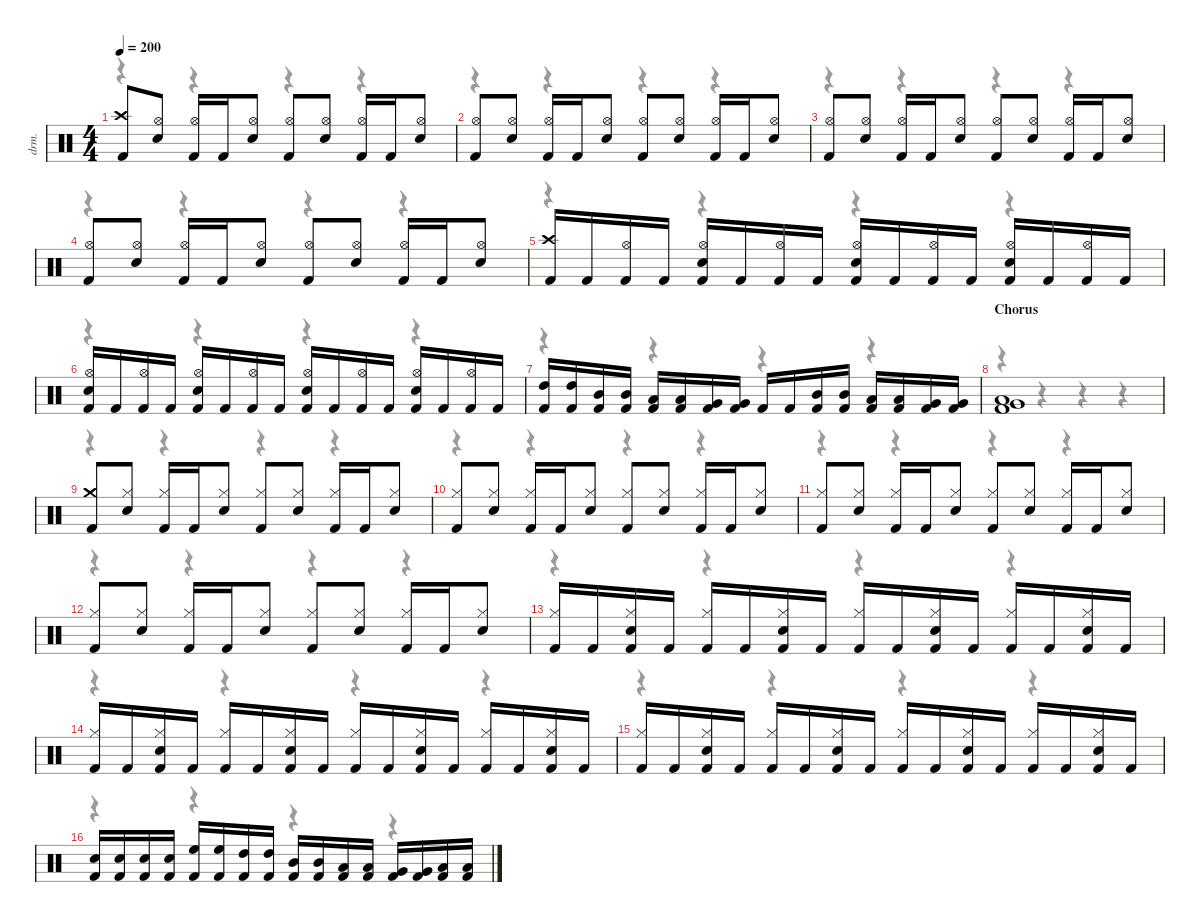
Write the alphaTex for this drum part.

\defaultSystemsLayout 4
\hideDynamics
\bracketExtendMode nobrackets
\otherSystemsTrackNameOrientation horizontal
\track ("David Mackintosh (Drums)" "drm.") {instrument percussion}
\staff {score}
\articulation defaults
\voice
\ts (4 4)
\tempo 200
\clef neutral
\ks c
("Kick (hit) 2" "Crash high (hit)").8{dy f} ("Snare (hit) 2" "Hi-Hat (open)").8 ("Kick (hit) 2" "Hi-Hat (open)").16 "Kick (hit) 2".16 ("Snare (hit) 2" "Hi-Hat (open)").8 ("Kick (hit) 2" "Hi-Hat (open)").8 ("Snare (hit) 2" "Hi-Hat (open)").8 ("Kick (hit) 2" "Hi-Hat (open)").16 "Kick (hit) 2".16 ("Snare (hit) 2" "Hi-Hat (open)").8 |
("Kick (hit) 2" "Hi-Hat (open)").8 ("Snare (hit) 2" "Hi-Hat (open)").8 ("Kick (hit) 2" "Hi-Hat (open)").16 "Kick (hit) 2".16 ("Snare (hit) 2" "Hi-Hat (open)").8 ("Kick (hit) 2" "Hi-Hat (open)").8 ("Snare (hit) 2" "Hi-Hat (open)").8 ("Kick (hit) 2" "Hi-Hat (open)").16 "Kick (hit) 2".16 ("Snare (hit) 2" "Hi-Hat (open)").8 |
("Kick (hit) 2" "Hi-Hat (open)").8 ("Snare (hit) 2" "Hi-Hat (open)").8 ("Kick (hit) 2" "Hi-Hat (open)").16 "Kick (hit) 2".16 ("Snare (hit) 2" "Hi-Hat (open)").8 ("Kick (hit) 2" "Hi-Hat (open)").8 ("Snare (hit) 2" "Hi-Hat (open)").8 ("Kick (hit) 2" "Hi-Hat (open)").16 "Kick (hit) 2".16 ("Snare (hit) 2" "Hi-Hat (open)").8 |
("Kick (hit) 2" "Hi-Hat (open)").8 ("Snare (hit) 2" "Hi-Hat (open)").8 ("Kick (hit) 2" "Hi-Hat (open)").16 "Kick (hit) 2".16 ("Snare (hit) 2" "Hi-Hat (open)").8 ("Kick (hit) 2" "Hi-Hat (open)").8 ("Snare (hit) 2" "Hi-Hat (open)").8 ("Kick (hit) 2" "Hi-Hat (open)").16 "Kick (hit) 2".16 ("Snare (hit) 2" "Hi-Hat (open)").8 |
("Kick (hit) 2" "Crash high (hit)").16 "Kick (hit) 2".16 ("Kick (hit) 2" "Hi-Hat (open)").16 "Kick (hit) 2".16 ("Kick (hit) 2" "Snare (hit) 2" "Hi-Hat (open)").16 "Kick (hit) 2".16 ("Kick (hit) 2" "Hi-Hat (open)").16 "Kick (hit) 2".16 ("Kick (hit) 2" "Snare (hit) 2" "Hi-Hat (open)").16 "Kick (hit) 2".16 ("Kick (hit) 2" "Hi-Hat (open)").16 "Kick (hit) 2".16 ("Kick (hit) 2" "Snare (hit) 2" "Hi-Hat (open)").16 "Kick (hit) 2".16 ("Kick (hit) 2" "Hi-Hat (open)").16 "Kick (hit) 2".16 |
("Kick (hit) 2" "Snare (hit) 2" "Hi-Hat (open)").16 "Kick (hit) 2".16 ("Kick (hit) 2" "Hi-Hat (open)").16 "Kick (hit) 2".16 ("Kick (hit) 2" "Snare (hit) 2" "Hi-Hat (open)").16 "Kick (hit) 2".16 ("Kick (hit) 2" "Hi-Hat (open)").16 "Kick (hit) 2".16 ("Kick (hit) 2" "Snare (hit) 2" "Hi-Hat (open)").16 "Kick (hit) 2".16 ("Kick (hit) 2" "Hi-Hat (open)").16 "Kick (hit) 2".16 ("Kick (hit) 2" "Snare (hit) 2" "Hi-Hat (open)").16 "Kick (hit) 2".16 ("Kick (hit) 2" "Hi-Hat (open)").16 "Kick (hit) 2".16 |
("Kick (hit) 2" "High Tom (hit)").16 ("Kick (hit) 2" "High Tom (hit)").16 ("Kick (hit) 2" "Mid Tom (hit)").16 ("Kick (hit) 2" "Mid Tom (hit)").16 ("Kick (hit) 2" "Low Tom (hit)").16 ("Kick (hit) 2" "Low Tom (hit)").16 ("Kick (hit) 2" "Very Low Tom (hit)").16 ("Kick (hit) 2" "Very Low Tom (hit)").16 "Kick (hit) 2".16 "Kick (hit) 2".16 ("Kick (hit) 2" "Mid Tom (hit)").16 ("Kick (hit) 2" "Mid Tom (hit)").16 ("Kick (hit) 2" "Low Tom (hit)").16 ("Kick (hit) 2" "Low Tom (hit)").16 ("Kick (hit) 2" "Very Low Tom (hit)").16 ("Kick (hit) 2" "Very Low Tom (hit)").16 |
\section ("" "Chorus")
("Kick (hit) 2" "Very Low Tom (hit)" "Low Floor Tom (hit)").1 |
("Kick (hit) 2" "Crash medium (hit)").8 ("Snare (hit) 2" "Hi-Hat (closed)").8 ("Kick (hit) 2" "Hi-Hat (closed)").16 "Kick (hit) 2".16 ("Snare (hit) 2" "Hi-Hat (closed)").8 ("Kick (hit) 2" "Hi-Hat (closed)").8 ("Snare (hit) 2" "Hi-Hat (closed)").8 ("Kick (hit) 2" "Hi-Hat (closed)").16 "Kick (hit) 2".16 ("Snare (hit) 2" "Hi-Hat (closed)").8 |
("Kick (hit) 2" "Hi-Hat (closed)").8 ("Snare (hit) 2" "Hi-Hat (closed)").8 ("Kick (hit) 2" "Hi-Hat (closed)").16 "Kick (hit) 2".16 ("Snare (hit) 2" "Hi-Hat (closed)").8 ("Kick (hit) 2" "Hi-Hat (closed)").8 ("Snare (hit) 2" "Hi-Hat (closed)").8 ("Kick (hit) 2" "Hi-Hat (closed)").16 "Kick (hit) 2".16 ("Snare (hit) 2" "Hi-Hat (closed)").8 |
("Kick (hit) 2" "Hi-Hat (closed)").8 ("Snare (hit) 2" "Hi-Hat (closed)").8 ("Kick (hit) 2" "Hi-Hat (closed)").16 "Kick (hit) 2".16 ("Snare (hit) 2" "Hi-Hat (closed)").8 ("Kick (hit) 2" "Hi-Hat (closed)").8 ("Snare (hit) 2" "Hi-Hat (closed)").8 ("Kick (hit) 2" "Hi-Hat (closed)").16 "Kick (hit) 2".16 ("Snare (hit) 2" "Hi-Hat (closed)").8 |
("Kick (hit) 2" "Hi-Hat (closed)").8 ("Snare (hit) 2" "Hi-Hat (closed)").8 ("Kick (hit) 2" "Hi-Hat (closed)").16 "Kick (hit) 2".16 ("Snare (hit) 2" "Hi-Hat (closed)").8 ("Kick (hit) 2" "Hi-Hat (closed)").8 ("Snare (hit) 2" "Hi-Hat (closed)").8 ("Kick (hit) 2" "Hi-Hat (closed)").16 "Kick (hit) 2".16 ("Snare (hit) 2" "Hi-Hat (closed)").8 |
("Kick (hit) 2" "Hi-Hat (closed)").16 "Kick (hit) 2".16 ("Kick (hit) 2" "Snare (hit) 2" "Hi-Hat (closed)").16 "Kick (hit) 2".16 ("Kick (hit) 2" "Hi-Hat (closed)").16 "Kick (hit) 2".16 ("Kick (hit) 2" "Snare (hit) 2" "Hi-Hat (closed)").16 "Kick (hit) 2".16 ("Kick (hit) 2" "Hi-Hat (closed)").16 "Kick (hit) 2".16 ("Kick (hit) 2" "Snare (hit) 2" "Hi-Hat (closed)").16 "Kick (hit) 2".16 ("Kick (hit) 2" "Hi-Hat (closed)").16 "Kick (hit) 2".16 ("Kick (hit) 2" "Snare (hit) 2" "Hi-Hat (closed)").16 "Kick (hit) 2".16 |
("Kick (hit) 2" "Hi-Hat (closed)").16 "Kick (hit) 2".16 ("Kick (hit) 2" "Snare (hit) 2" "Hi-Hat (closed)").16 "Kick (hit) 2".16 ("Kick (hit) 2" "Hi-Hat (closed)").16 "Kick (hit) 2".16 ("Kick (hit) 2" "Snare (hit) 2" "Hi-Hat (closed)").16 "Kick (hit) 2".16 ("Kick (hit) 2" "Hi-Hat (closed)").16 "Kick (hit) 2".16 ("Kick (hit) 2" "Snare (hit) 2" "Hi-Hat (closed)").16 "Kick (hit) 2".16 ("Kick (hit) 2" "Hi-Hat (closed)").16 "Kick (hit) 2".16 ("Kick (hit) 2" "Snare (hit) 2" "Hi-Hat (closed)").16 "Kick (hit) 2".16 |
("Kick (hit) 2" "Hi-Hat (closed)").16 "Kick (hit) 2".16 ("Kick (hit) 2" "Snare (hit) 2" "Hi-Hat (closed)").16 "Kick (hit) 2".16 ("Kick (hit) 2" "Hi-Hat (closed)").16 "Kick (hit) 2".16 ("Kick (hit) 2" "Snare (hit) 2" "Hi-Hat (closed)").16 "Kick (hit) 2".16 ("Kick (hit) 2" "Hi-Hat (closed)").16 "Kick (hit) 2".16 ("Kick (hit) 2" "Snare (hit) 2" "Hi-Hat (closed)").16 "Kick (hit) 2".16 ("Kick (hit) 2" "Hi-Hat (closed)").16 "Kick (hit) 2".16 ("Kick (hit) 2" "Snare (hit) 2" "Hi-Hat (closed)").16 "Kick (hit) 2".16 |
("Kick (hit) 2" "Snare (hit) 2").16 ("Kick (hit) 2" "Snare (hit) 2").16 ("Kick (hit) 2" "Snare (hit) 2").16 ("Kick (hit) 2" "Snare (hit) 2").16 ("Kick (hit) 2" "High Floor Tom (hit)").16 ("Kick (hit) 2" "High Floor Tom (hit)").16 ("Kick (hit) 2" "High Tom (hit)").16 ("Kick (hit) 2" "High Tom (hit)").16 ("Kick (hit) 2" "Mid Tom (hit)").16 ("Kick (hit) 2" "Mid Tom (hit)").16 ("Kick (hit) 2" "Low Tom (hit)").16 ("Kick (hit) 2" "Low Tom (hit)").16 ("Kick (hit) 2" "Very Low Tom (hit)").16 ("Kick (hit) 2" "Very Low Tom (hit)").16 ("Kick (hit) 2" "Low Floor Tom (hit)").16 ("Kick (hit) 2" "Low Floor Tom (hit)").16
\voice
\clef neutral
\ottava regular
\simile none
\ks c
r.4{dy mf} r.4 r.4 r.4 |
r.4 r.4 r.4 r.4 |
r.4 r.4 r.4 r.4 |
r.4 r.4 r.4 r.4 |
r.4 r.4 r.4 r.4 |
r.4 r.4 r.4 r.4 |
r.4 r.4 r.4 r.4 |
r.4 r.4 r.4 r.4 |
r.4 r.4 r.4 r.4 |
r.4 r.4 r.4 r.4 |
r.4 r.4 r.4 r.4 |
r.4 r.4 r.4 r.4 |
r.4 r.4 r.4 r.4 |
r.4 r.4 r.4 r.4 |
r.4 r.4 r.4 r.4 |
r.4 r.4 r.4 r.4
